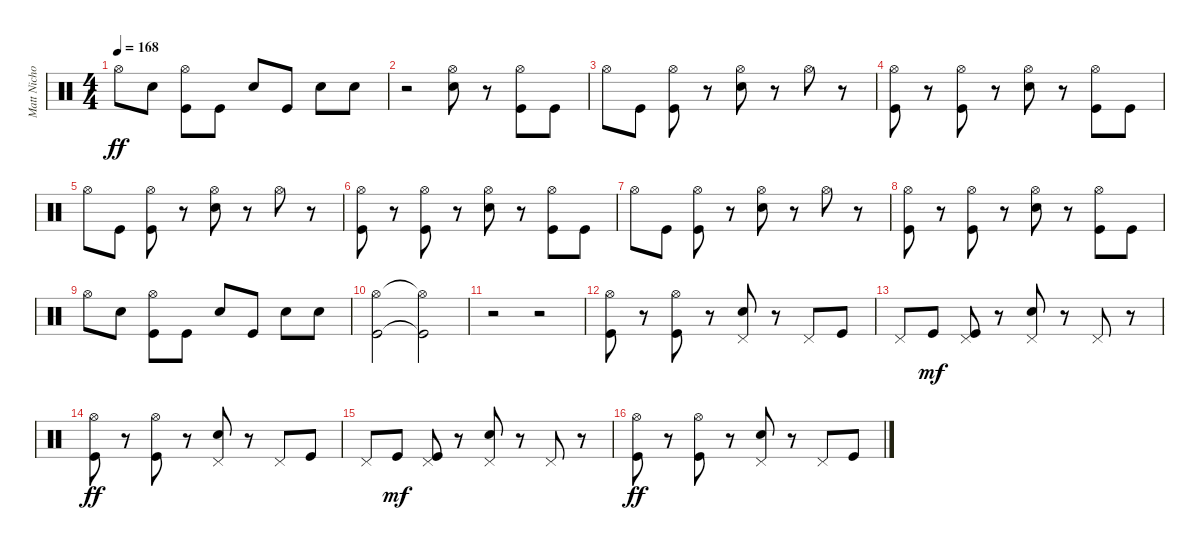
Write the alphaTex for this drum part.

\track ("Matt Nicholls" "Matt Nicho") {instrument percussion}
\staff {score}
\articulation defaults
\ts (4 4)
\tempo 168
\clef neutral
\ks c "Hi-Hat (open)".8{dy ff} "Snare (hit) 2".8
("Kick (hit)" "Hi-Hat (open)").8 "Kick (hit)".8 "Snare (hit) 2".8 "Kick (hit)".8 "Snare (hit) 2".8 "Snare (hit) 2".8 |
r.2 ("Snare (hit) 2" "Hi-Hat (open)").8 r.8 ("Kick (hit)" "Hi-Hat (open)").8 "Kick (hit)".8 |
"Hi-Hat (open)".8 "Kick (hit)".8 ("Kick (hit)" "Hi-Hat (open)").8 r.8 ("Hi-Hat (open)" "Snare (hit) 2").8 r.8 "Hi-Hat (open)".8 r.8 |
("Kick (hit)" "Hi-Hat (open)").8 r.8 ("Kick (hit)" "Hi-Hat (open)").8 r.8 ("Snare (hit) 2" "Hi-Hat (open)").8 r.8 ("Kick (hit)" "Hi-Hat (open)").8 "Kick (hit)".8 |
"Hi-Hat (open)".8 "Kick (hit)".8 ("Kick (hit)" "Hi-Hat (open)").8 r.8 ("Hi-Hat (open)" "Snare (hit) 2").8 r.8 "Hi-Hat (open)".8 r.8 |
("Kick (hit)" "Hi-Hat (open)").8 r.8 ("Kick (hit)" "Hi-Hat (open)").8 r.8 ("Snare (hit) 2" "Hi-Hat (open)").8 r.8 ("Kick (hit)" "Hi-Hat (open)").8 "Kick (hit)".8 |
"Hi-Hat (open)".8 "Kick (hit)".8 ("Kick (hit)" "Hi-Hat (open)").8 r.8 ("Hi-Hat (open)" "Snare (hit) 2").8 r.8 "Hi-Hat (open)".8 r.8 |
("Kick (hit)" "Hi-Hat (open)").8 r.8 ("Kick (hit)" "Hi-Hat (open)").8 r.8 ("Snare (hit) 2" "Hi-Hat (open)").8 r.8 ("Kick (hit)" "Hi-Hat (open)").8 "Kick (hit)".8 |
"Hi-Hat (open)".8 "Snare (hit) 2".8 ("Kick (hit)" "Hi-Hat (open)").8 "Kick (hit)".8 "Snare (hit) 2".8 "Kick (hit)".8 "Snare (hit) 2".8 "Snare (hit) 2".8 |
("Kick (hit)" "Hi-Hat (open)").2 ("Kick (hit)"{t} "Hi-Hat (open)"{t}).2 |
r.2 r.2 |
("Kick (hit)" "Hi-Hat (open)").8 r.8 ("Kick (hit)" "Hi-Hat (open)").8 r.8 ("Snare (hit) 2" "Pedal Hi-Hat (hit)").8 r.8 "Pedal Hi-Hat (hit)".8 "Kick (hit)".8 |
"Pedal Hi-Hat (hit)".8 "Kick (hit)".8{dy mf} ("Kick (hit)" "Pedal Hi-Hat (hit)").8 r.8 ("Snare (hit) 2" "Pedal Hi-Hat (hit)").8 r.8 "Pedal Hi-Hat (hit)".8 r.8 |
("Kick (hit)" "Hi-Hat (open)").8{dy ff} r.8 ("Kick (hit)" "Hi-Hat (open)").8 r.8 ("Snare (hit) 2" "Pedal Hi-Hat (hit)").8 r.8 "Pedal Hi-Hat (hit)".8 "Kick (hit)".8 |
"Pedal Hi-Hat (hit)".8 "Kick (hit)".8{dy mf} ("Kick (hit)" "Pedal Hi-Hat (hit)").8 r.8 ("Snare (hit) 2" "Pedal Hi-Hat (hit)").8 r.8 "Pedal Hi-Hat (hit)".8 r.8 |
("Kick (hit)" "Hi-Hat (open)").8{dy ff} r.8 ("Kick (hit)" "Hi-Hat (open)").8 r.8 ("Snare (hit) 2" "Pedal Hi-Hat (hit)").8 r.8 "Pedal Hi-Hat (hit)".8 "Kick (hit)".8
